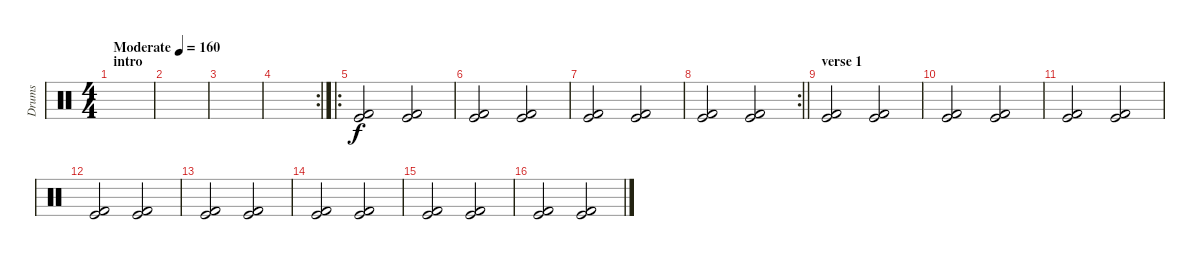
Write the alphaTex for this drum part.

\track ("Drums" "Drums") {instrument percussion}
\staff {score}
\articulation defaults
\ts (4 4)
\section ("" "intro")
\tempo (160 "Moderate")
\clef neutral
\ks c
|
|
|
\rc 2
|
\ro
("Kick (hit)" "Kick (hit) 2").2 ("Kick (hit)" "Kick (hit) 2").2 |
("Kick (hit)" "Kick (hit) 2").2 ("Kick (hit)" "Kick (hit) 2").2 |
("Kick (hit)" "Kick (hit) 2").2 ("Kick (hit)" "Kick (hit) 2").2 |
\rc 2
\barLineRight lightlight
("Kick (hit)" "Kick (hit) 2").2 ("Kick (hit)" "Kick (hit) 2").2 |
\section ("" "verse 1")
("Kick (hit)" "Kick (hit) 2").2 ("Kick (hit)" "Kick (hit) 2").2 |
("Kick (hit)" "Kick (hit) 2").2 ("Kick (hit)" "Kick (hit) 2").2 |
("Kick (hit)" "Kick (hit) 2").2 ("Kick (hit)" "Kick (hit) 2").2 |
("Kick (hit)" "Kick (hit) 2").2 ("Kick (hit)" "Kick (hit) 2").2 |
("Kick (hit)" "Kick (hit) 2").2 ("Kick (hit)" "Kick (hit) 2").2 |
("Kick (hit)" "Kick (hit) 2").2 ("Kick (hit)" "Kick (hit) 2").2 |
("Kick (hit)" "Kick (hit) 2").2 ("Kick (hit)" "Kick (hit) 2").2 |
("Kick (hit)" "Kick (hit) 2").2 ("Kick (hit)" "Kick (hit) 2").2
